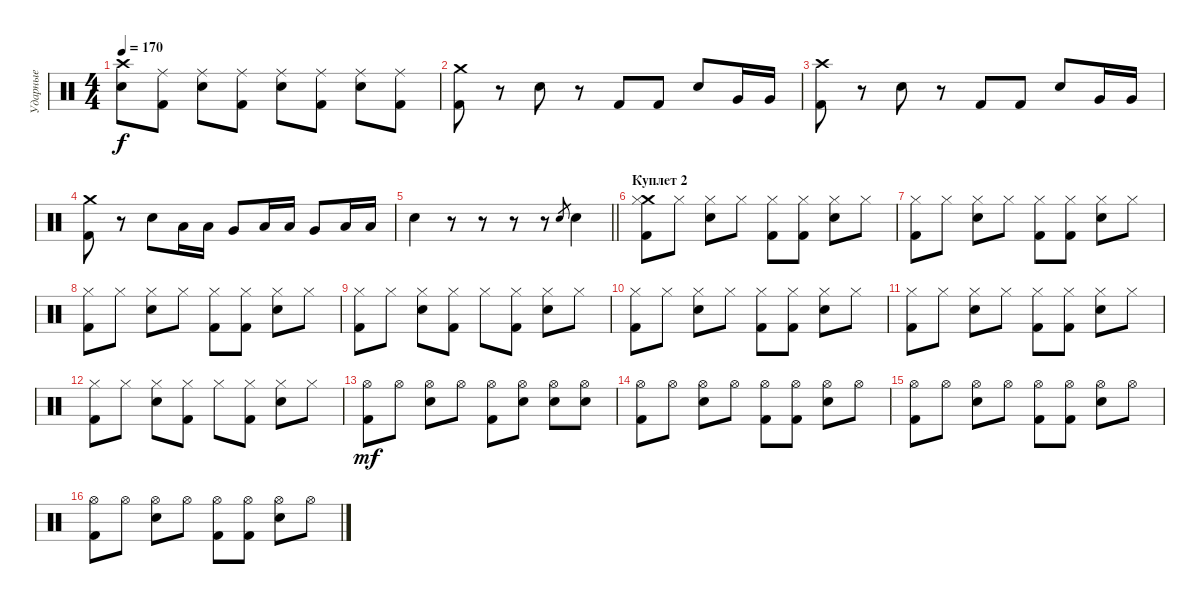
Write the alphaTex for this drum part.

\track ("Ударные" "Ударные") {instrument percussion}
\staff {score}
\articulation defaults
\ts (4 4)
\tempo 170
\clef neutral
\ks c
("Crash high (hit)" "Snare (hit) 2").8{dy f} ("Ride (middle)" "Kick (hit) 2").8 ("Ride (middle)" "Snare (hit) 2").8 ("Ride (middle)" "Kick (hit) 2").8 ("Ride (middle)" "Snare (hit) 2").8 ("Ride (middle)" "Kick (hit) 2").8 ("Ride (middle)" "Snare (hit) 2").8 ("Ride (middle)" "Kick (hit) 2").8 |
("Crash medium (hit)" "Kick (hit) 2").8 r.8 "Snare (hit) 2".8 r.8 "Kick (hit) 2".8 "Kick (hit) 2".8 "Snare (hit) 2".8 "Very Low Tom (hit)".16 "Very Low Tom (hit)".16 |
("Crash high (hit)" "Kick (hit) 2").8 r.8 "Snare (hit) 2".8 r.8 "Kick (hit) 2".8 "Kick (hit) 2".8 "Snare (hit) 2".8 "Very Low Tom (hit)".16 "Very Low Tom (hit)".16 |
("Crash medium (hit)" "Kick (hit) 2").8 r.8 "Snare (hit) 2".8 "Low Tom (hit)".16 "Low Tom (hit)".16 "Very Low Tom (hit)".8 "Low Tom (hit)".16 "Low Tom (hit)".16 "Very Low Tom (hit)".8 "Low Tom (hit)".16 "Low Tom (hit)".16 |
\barLineRight lightlight "Snare (hit) 2".4
r.8 r.8 r.8 r.8 "Snare (hit) 2".8{gr} "Snare (hit) 2".4 |
\section ("" "Куплет 2")
("Crash medium (hit)" "Hi-Hat (closed)" "Kick (hit) 2").8 "Hi-Hat (closed)".8 ("Hi-Hat (closed)" "Snare (hit) 2").8 "Hi-Hat (closed)".8 ("Hi-Hat (closed)" "Kick (hit) 2").8 ("Hi-Hat (closed)" "Kick (hit) 2").8 ("Hi-Hat (closed)" "Snare (hit) 2").8 "Hi-Hat (closed)".8 |
("Hi-Hat (closed)" "Kick (hit) 2").8 "Hi-Hat (closed)".8 ("Hi-Hat (closed)" "Snare (hit) 2").8 "Hi-Hat (closed)".8 ("Hi-Hat (closed)" "Kick (hit) 2").8 ("Hi-Hat (closed)" "Kick (hit) 2").8 ("Hi-Hat (closed)" "Snare (hit) 2").8 "Hi-Hat (closed)".8 |
("Hi-Hat (closed)" "Kick (hit) 2").8 "Hi-Hat (closed)".8 ("Hi-Hat (closed)" "Snare (hit) 2").8 "Hi-Hat (closed)".8 ("Hi-Hat (closed)" "Kick (hit) 2").8 ("Hi-Hat (closed)" "Kick (hit) 2").8 ("Hi-Hat (closed)" "Snare (hit) 2").8 "Hi-Hat (closed)".8 |
("Hi-Hat (closed)" "Kick (hit) 2").8 "Hi-Hat (closed)".8 ("Hi-Hat (closed)" "Snare (hit) 2").8 ("Hi-Hat (closed)" "Kick (hit) 2").8 "Hi-Hat (closed)".8 ("Hi-Hat (closed)" "Kick (hit) 2").8 ("Hi-Hat (closed)" "Snare (hit) 2").8 "Hi-Hat (closed)".8 |
("Hi-Hat (closed)" "Kick (hit) 2").8 "Hi-Hat (closed)".8 ("Hi-Hat (closed)" "Snare (hit) 2").8 "Hi-Hat (closed)".8 ("Hi-Hat (closed)" "Kick (hit) 2").8 ("Hi-Hat (closed)" "Kick (hit) 2").8 ("Hi-Hat (closed)" "Snare (hit) 2").8 "Hi-Hat (closed)".8 |
("Hi-Hat (closed)" "Kick (hit) 2").8 "Hi-Hat (closed)".8 ("Hi-Hat (closed)" "Snare (hit) 2").8 "Hi-Hat (closed)".8 ("Hi-Hat (closed)" "Kick (hit) 2").8 ("Hi-Hat (closed)" "Kick (hit) 2").8 ("Hi-Hat (closed)" "Snare (hit) 2").8 "Hi-Hat (closed)".8 |
("Hi-Hat (closed)" "Kick (hit) 2").8 "Hi-Hat (closed)".8 ("Hi-Hat (closed)" "Snare (hit) 2").8 ("Hi-Hat (closed)" "Kick (hit) 2").8 "Hi-Hat (closed)".8 ("Hi-Hat (closed)" "Kick (hit) 2").8 ("Hi-Hat (closed)" "Snare (hit) 2").8 "Hi-Hat (closed)".8 |
("Hi-Hat (open)" "Kick (hit) 2").8{dy mf} "Hi-Hat (open)".8 ("Hi-Hat (open)" "Snare (hit) 2").8 "Hi-Hat (open)".8 ("Hi-Hat (open)" "Kick (hit) 2").8 ("Hi-Hat (open)" "Snare (hit) 2").8 ("Hi-Hat (open)" "Snare (hit) 2").8 ("Hi-Hat (open)" "Snare (hit) 2").8 |
("Hi-Hat (open)" "Kick (hit) 2").8 "Hi-Hat (open)".8 ("Hi-Hat (open)" "Snare (hit) 2").8 "Hi-Hat (open)".8 ("Hi-Hat (open)" "Kick (hit) 2").8 ("Hi-Hat (open)" "Kick (hit) 2").8 ("Hi-Hat (open)" "Snare (hit) 2").8 "Hi-Hat (open)".8 |
("Hi-Hat (open)" "Kick (hit) 2").8 "Hi-Hat (open)".8 ("Hi-Hat (open)" "Snare (hit) 2").8 "Hi-Hat (open)".8 ("Hi-Hat (open)" "Kick (hit) 2").8 ("Hi-Hat (open)" "Kick (hit) 2").8 ("Hi-Hat (open)" "Snare (hit) 2").8 "Hi-Hat (open)".8 |
("Hi-Hat (open)" "Kick (hit) 2").8 "Hi-Hat (open)".8 ("Hi-Hat (open)" "Snare (hit) 2").8 "Hi-Hat (open)".8 ("Hi-Hat (open)" "Kick (hit) 2").8 ("Hi-Hat (open)" "Kick (hit) 2").8 ("Hi-Hat (open)" "Snare (hit) 2").8 "Hi-Hat (open)".8
